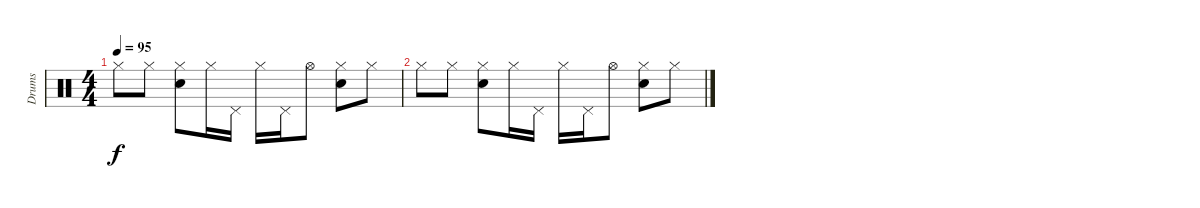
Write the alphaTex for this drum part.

\track ("Drums" "Drums") {instrument percussion}
\staff {score}
\articulation defaults
\ts (4 4)
\tempo 95
\clef neutral
\ks c "Hi-Hat (closed)".8{dy f} "Hi-Hat (closed)".8
("Hi-Hat (closed)" "Snare (hit) 2").8 "Hi-Hat (closed)".16 "Pedal Hi-Hat (hit)".16 "Hi-Hat (closed)".16 "Pedal Hi-Hat (hit)".16 "Hi-Hat (open)".8 ("Hi-Hat (closed)" "Snare (hit) 2").8 "Hi-Hat (closed)".8 |
"Hi-Hat (closed)".8 "Hi-Hat (closed)".8 ("Hi-Hat (closed)" "Snare (hit) 2").8 "Hi-Hat (closed)".16 "Pedal Hi-Hat (hit)".16 "Hi-Hat (closed)".16 "Pedal Hi-Hat (hit)".16 "Hi-Hat (open)".8 ("Hi-Hat (closed)" "Snare (hit) 2").8 "Hi-Hat (closed)".8
